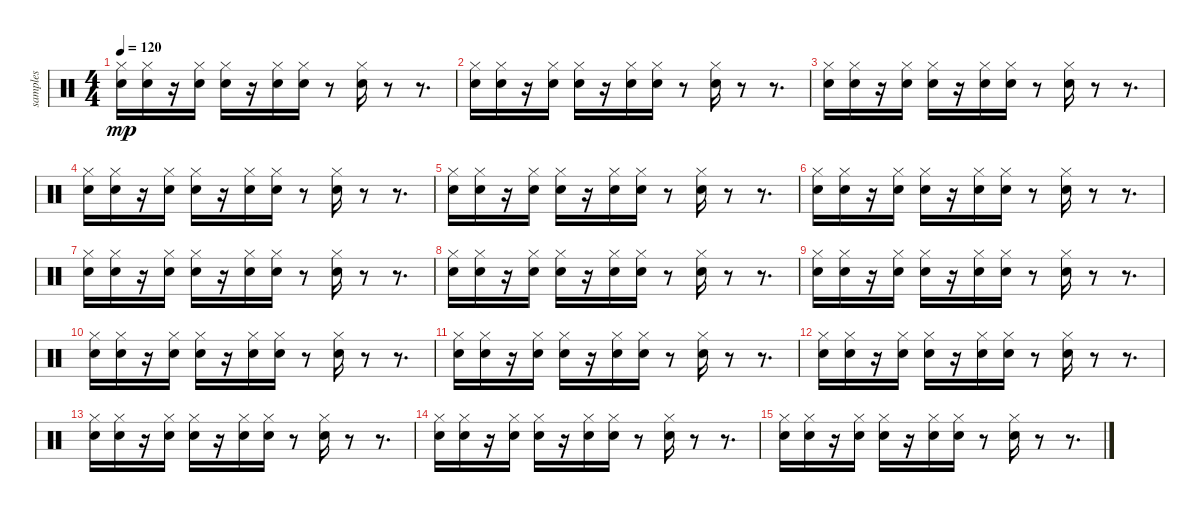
\track ("samples" "samples") {instrument percussion}
\staff {score}
\articulation defaults
\ts (4 4)
\tempo 120
\clef neutral
\ks c
("Hi-Hat (closed)" "Snare (hit) 2").16{dy mp} ("Hi-Hat (closed)" "Snare (hit) 2").16 r.16 ("Hi-Hat (closed)" "Snare (hit) 2").16 ("Hi-Hat (closed)" "Snare (hit) 2").16 r.16 ("Hi-Hat (closed)" "Snare (hit) 2").16 ("Hi-Hat (closed)" "Snare (hit) 2").16 r.8 ("Hi-Hat (closed)" "Snare (hit) 2").16 r.8 r.8{d} |
("Hi-Hat (closed)" "Snare (hit) 2").16 ("Hi-Hat (closed)" "Snare (hit) 2").16 r.16 ("Hi-Hat (closed)" "Snare (hit) 2").16 ("Hi-Hat (closed)" "Snare (hit) 2").16 r.16 ("Hi-Hat (closed)" "Snare (hit) 2").16 ("Hi-Hat (closed)" "Snare (hit) 2").16 r.8 ("Hi-Hat (closed)" "Snare (hit) 2").16 r.8 r.8{d} |
("Hi-Hat (closed)" "Snare (hit) 2").16 ("Hi-Hat (closed)" "Snare (hit) 2").16 r.16 ("Hi-Hat (closed)" "Snare (hit) 2").16 ("Hi-Hat (closed)" "Snare (hit) 2").16 r.16 ("Hi-Hat (closed)" "Snare (hit) 2").16 ("Hi-Hat (closed)" "Snare (hit) 2").16 r.8 ("Hi-Hat (closed)" "Snare (hit) 2").16 r.8 r.8{d} |
("Hi-Hat (closed)" "Snare (hit) 2").16 ("Hi-Hat (closed)" "Snare (hit) 2").16 r.16 ("Hi-Hat (closed)" "Snare (hit) 2").16 ("Hi-Hat (closed)" "Snare (hit) 2").16 r.16 ("Hi-Hat (closed)" "Snare (hit) 2").16 ("Hi-Hat (closed)" "Snare (hit) 2").16 r.8 ("Hi-Hat (closed)" "Snare (hit) 2").16 r.8 r.8{d} |
("Hi-Hat (closed)" "Snare (hit) 2").16 ("Hi-Hat (closed)" "Snare (hit) 2").16 r.16 ("Hi-Hat (closed)" "Snare (hit) 2").16 ("Hi-Hat (closed)" "Snare (hit) 2").16 r.16 ("Hi-Hat (closed)" "Snare (hit) 2").16 ("Hi-Hat (closed)" "Snare (hit) 2").16 r.8 ("Hi-Hat (closed)" "Snare (hit) 2").16 r.8 r.8{d} |
("Hi-Hat (closed)" "Snare (hit) 2").16 ("Hi-Hat (closed)" "Snare (hit) 2").16 r.16 ("Hi-Hat (closed)" "Snare (hit) 2").16 ("Hi-Hat (closed)" "Snare (hit) 2").16 r.16 ("Hi-Hat (closed)" "Snare (hit) 2").16 ("Hi-Hat (closed)" "Snare (hit) 2").16 r.8 ("Hi-Hat (closed)" "Snare (hit) 2").16 r.8 r.8{d} |
("Hi-Hat (closed)" "Snare (hit) 2").16 ("Hi-Hat (closed)" "Snare (hit) 2").16 r.16 ("Hi-Hat (closed)" "Snare (hit) 2").16 ("Hi-Hat (closed)" "Snare (hit) 2").16 r.16 ("Hi-Hat (closed)" "Snare (hit) 2").16 ("Hi-Hat (closed)" "Snare (hit) 2").16 r.8 ("Hi-Hat (closed)" "Snare (hit) 2").16 r.8 r.8{d} |
("Hi-Hat (closed)" "Snare (hit) 2").16 ("Hi-Hat (closed)" "Snare (hit) 2").16 r.16 ("Hi-Hat (closed)" "Snare (hit) 2").16 ("Hi-Hat (closed)" "Snare (hit) 2").16 r.16 ("Hi-Hat (closed)" "Snare (hit) 2").16 ("Hi-Hat (closed)" "Snare (hit) 2").16 r.8 ("Hi-Hat (closed)" "Snare (hit) 2").16 r.8 r.8{d} |
("Hi-Hat (closed)" "Snare (hit) 2").16 ("Hi-Hat (closed)" "Snare (hit) 2").16 r.16 ("Hi-Hat (closed)" "Snare (hit) 2").16 ("Hi-Hat (closed)" "Snare (hit) 2").16 r.16 ("Hi-Hat (closed)" "Snare (hit) 2").16 ("Hi-Hat (closed)" "Snare (hit) 2").16 r.8 ("Hi-Hat (closed)" "Snare (hit) 2").16 r.8 r.8{d} |
("Hi-Hat (closed)" "Snare (hit) 2").16 ("Hi-Hat (closed)" "Snare (hit) 2").16 r.16 ("Hi-Hat (closed)" "Snare (hit) 2").16 ("Hi-Hat (closed)" "Snare (hit) 2").16 r.16 ("Hi-Hat (closed)" "Snare (hit) 2").16 ("Hi-Hat (closed)" "Snare (hit) 2").16 r.8 ("Hi-Hat (closed)" "Snare (hit) 2").16 r.8 r.8{d} |
("Hi-Hat (closed)" "Snare (hit) 2").16 ("Hi-Hat (closed)" "Snare (hit) 2").16 r.16 ("Hi-Hat (closed)" "Snare (hit) 2").16 ("Hi-Hat (closed)" "Snare (hit) 2").16 r.16 ("Hi-Hat (closed)" "Snare (hit) 2").16 ("Hi-Hat (closed)" "Snare (hit) 2").16 r.8 ("Hi-Hat (closed)" "Snare (hit) 2").16 r.8 r.8{d} |
("Hi-Hat (closed)" "Snare (hit) 2").16 ("Hi-Hat (closed)" "Snare (hit) 2").16 r.16 ("Hi-Hat (closed)" "Snare (hit) 2").16 ("Hi-Hat (closed)" "Snare (hit) 2").16 r.16 ("Hi-Hat (closed)" "Snare (hit) 2").16 ("Hi-Hat (closed)" "Snare (hit) 2").16 r.8 ("Hi-Hat (closed)" "Snare (hit) 2").16 r.8 r.8{d} |
("Hi-Hat (closed)" "Snare (hit) 2").16 ("Hi-Hat (closed)" "Snare (hit) 2").16 r.16 ("Hi-Hat (closed)" "Snare (hit) 2").16 ("Hi-Hat (closed)" "Snare (hit) 2").16 r.16 ("Hi-Hat (closed)" "Snare (hit) 2").16 ("Hi-Hat (closed)" "Snare (hit) 2").16 r.8 ("Hi-Hat (closed)" "Snare (hit) 2").16 r.8 r.8{d} |
("Hi-Hat (closed)" "Snare (hit) 2").16 ("Hi-Hat (closed)" "Snare (hit) 2").16 r.16 ("Hi-Hat (closed)" "Snare (hit) 2").16 ("Hi-Hat (closed)" "Snare (hit) 2").16 r.16 ("Hi-Hat (closed)" "Snare (hit) 2").16 ("Hi-Hat (closed)" "Snare (hit) 2").16 r.8 ("Hi-Hat (closed)" "Snare (hit) 2").16 r.8 r.8{d} |
("Hi-Hat (closed)" "Snare (hit) 2").16 ("Hi-Hat (closed)" "Snare (hit) 2").16 r.16 ("Hi-Hat (closed)" "Snare (hit) 2").16 ("Hi-Hat (closed)" "Snare (hit) 2").16 r.16 ("Hi-Hat (closed)" "Snare (hit) 2").16 ("Hi-Hat (closed)" "Snare (hit) 2").16 r.8 ("Hi-Hat (closed)" "Snare (hit) 2").16 r.8 r.8{d}
